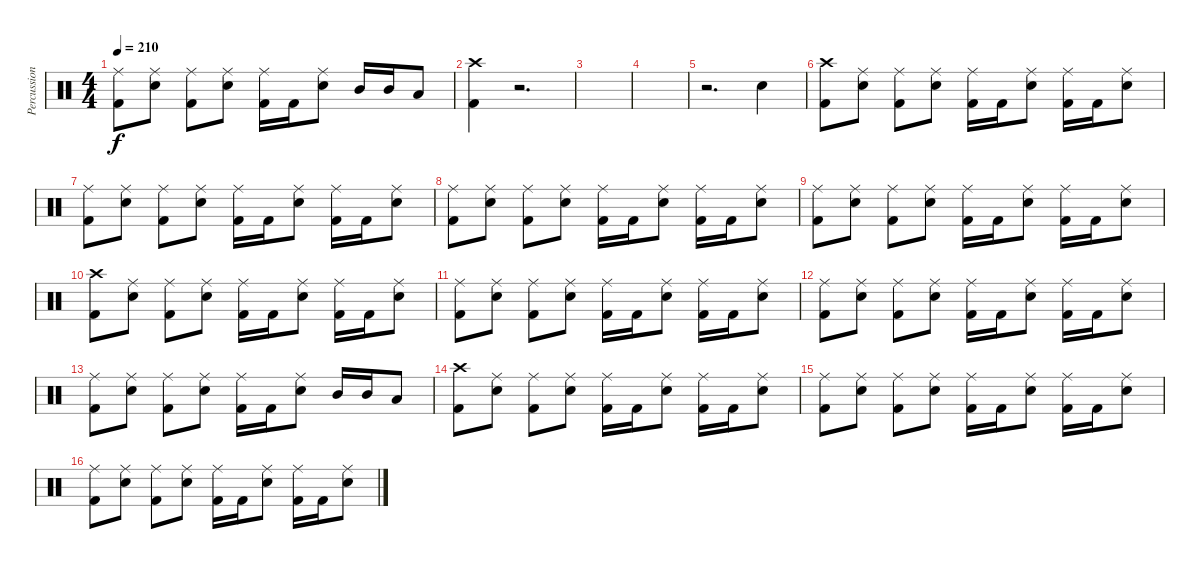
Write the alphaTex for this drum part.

\track ("Percussions" "Percussion") {instrument percussion}
\staff {score}
\articulation defaults
\ts (4 4)
\tempo 210
\clef neutral
\ks c
("Kick (hit) 2" "Ride (middle)").8{dy f} ("Electric Snare (hit)" "Ride (middle)").8 ("Kick (hit) 2" "Ride (middle)").8 ("Electric Snare (hit)" "Ride (middle)").8 ("Kick (hit) 2" "Ride (middle)").16 "Kick (hit) 2".16 ("Electric Snare (hit)" "Ride (middle)").8 "Mid Tom (hit)".16 "Mid Tom (hit)".16 "Low Tom (hit)".8 |
("Kick (hit) 2" "Crash high (hit)").4 r.2{d} |
|
|
r.2{d} "Electric Snare (hit)".4 |
("Kick (hit) 2" "Crash high (hit)").8 ("Electric Snare (hit)" "Ride (middle)").8 ("Kick (hit) 2" "Ride (middle)").8 ("Electric Snare (hit)" "Ride (middle)").8 ("Kick (hit) 2" "Ride (middle)").16 "Kick (hit) 2".16 ("Electric Snare (hit)" "Ride (middle)").8 ("Kick (hit) 2" "Ride (middle)").16 "Kick (hit) 2".16 ("Electric Snare (hit)" "Ride (middle)").8 |
("Kick (hit) 2" "Ride (middle)").8 ("Electric Snare (hit)" "Ride (middle)").8 ("Kick (hit) 2" "Ride (middle)").8 ("Electric Snare (hit)" "Ride (middle)").8 ("Kick (hit) 2" "Ride (middle)").16 "Kick (hit) 2".16 ("Electric Snare (hit)" "Ride (middle)").8 ("Kick (hit) 2" "Ride (middle)").16 "Kick (hit) 2".16 ("Electric Snare (hit)" "Ride (middle)").8 |
("Kick (hit) 2" "Ride (middle)").8 ("Electric Snare (hit)" "Ride (middle)").8 ("Kick (hit) 2" "Ride (middle)").8 ("Electric Snare (hit)" "Ride (middle)").8 ("Kick (hit) 2" "Ride (middle)").16 "Kick (hit) 2".16 ("Electric Snare (hit)" "Ride (middle)").8 ("Kick (hit) 2" "Ride (middle)").16 "Kick (hit) 2".16 ("Electric Snare (hit)" "Ride (middle)").8 |
("Kick (hit) 2" "Ride (middle)").8 ("Electric Snare (hit)" "Ride (middle)").8 ("Kick (hit) 2" "Ride (middle)").8 ("Electric Snare (hit)" "Ride (middle)").8 ("Kick (hit) 2" "Ride (middle)").16 "Kick (hit) 2".16 ("Electric Snare (hit)" "Ride (middle)").8 ("Kick (hit) 2" "Ride (middle)").16 "Kick (hit) 2".16 ("Electric Snare (hit)" "Ride (middle)").8 |
("Kick (hit) 2" "Crash high (hit)").8 ("Electric Snare (hit)" "Ride (middle)").8 ("Kick (hit) 2" "Ride (middle)").8 ("Electric Snare (hit)" "Ride (middle)").8 ("Kick (hit) 2" "Ride (middle)").16 "Kick (hit) 2".16 ("Electric Snare (hit)" "Ride (middle)").8 ("Kick (hit) 2" "Ride (middle)").16 "Kick (hit) 2".16 ("Electric Snare (hit)" "Ride (middle)").8 |
("Kick (hit) 2" "Ride (middle)").8 ("Electric Snare (hit)" "Ride (middle)").8 ("Kick (hit) 2" "Ride (middle)").8 ("Electric Snare (hit)" "Ride (middle)").8 ("Kick (hit) 2" "Ride (middle)").16 "Kick (hit) 2".16 ("Electric Snare (hit)" "Ride (middle)").8 ("Kick (hit) 2" "Ride (middle)").16 "Kick (hit) 2".16 ("Electric Snare (hit)" "Ride (middle)").8 |
("Kick (hit) 2" "Ride (middle)").8 ("Electric Snare (hit)" "Ride (middle)").8 ("Kick (hit) 2" "Ride (middle)").8 ("Electric Snare (hit)" "Ride (middle)").8 ("Kick (hit) 2" "Ride (middle)").16 "Kick (hit) 2".16 ("Electric Snare (hit)" "Ride (middle)").8 ("Kick (hit) 2" "Ride (middle)").16 "Kick (hit) 2".16 ("Electric Snare (hit)" "Ride (middle)").8 |
("Kick (hit) 2" "Ride (middle)").8 ("Electric Snare (hit)" "Ride (middle)").8 ("Kick (hit) 2" "Ride (middle)").8 ("Electric Snare (hit)" "Ride (middle)").8 ("Kick (hit) 2" "Ride (middle)").16 "Kick (hit) 2".16 ("Electric Snare (hit)" "Ride (middle)").8 "Mid Tom (hit)".16 "Mid Tom (hit)".16 "Low Tom (hit)".8 |
("Kick (hit) 2" "Crash high (hit)").8 ("Electric Snare (hit)" "Ride (middle)").8 ("Kick (hit) 2" "Ride (middle)").8 ("Electric Snare (hit)" "Ride (middle)").8 ("Kick (hit) 2" "Ride (middle)").16 "Kick (hit) 2".16 ("Electric Snare (hit)" "Ride (middle)").8 ("Kick (hit) 2" "Ride (middle)").16 "Kick (hit) 2".16 ("Electric Snare (hit)" "Ride (middle)").8 |
("Kick (hit) 2" "Ride (middle)").8 ("Electric Snare (hit)" "Ride (middle)").8 ("Kick (hit) 2" "Ride (middle)").8 ("Electric Snare (hit)" "Ride (middle)").8 ("Kick (hit) 2" "Ride (middle)").16 "Kick (hit) 2".16 ("Electric Snare (hit)" "Ride (middle)").8 ("Kick (hit) 2" "Ride (middle)").16 "Kick (hit) 2".16 ("Electric Snare (hit)" "Ride (middle)").8 |
("Kick (hit) 2" "Ride (middle)").8 ("Electric Snare (hit)" "Ride (middle)").8 ("Kick (hit) 2" "Ride (middle)").8 ("Electric Snare (hit)" "Ride (middle)").8 ("Kick (hit) 2" "Ride (middle)").16 "Kick (hit) 2".16 ("Electric Snare (hit)" "Ride (middle)").8 ("Kick (hit) 2" "Ride (middle)").16 "Kick (hit) 2".16 ("Electric Snare (hit)" "Ride (middle)").8
